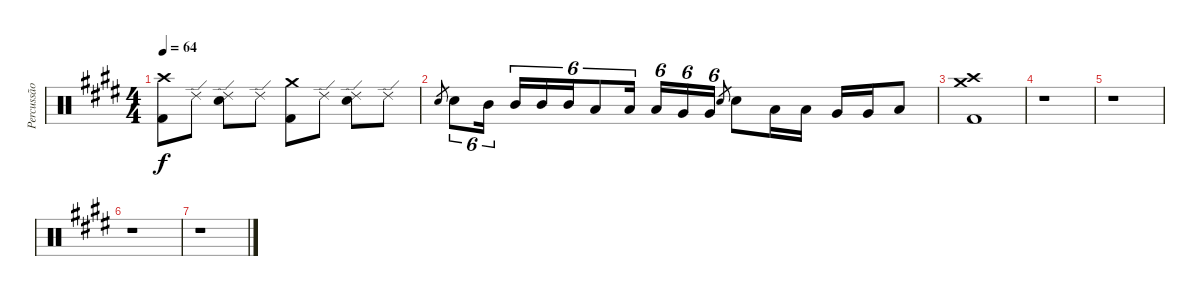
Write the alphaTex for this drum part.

\track ("Percussão" "Percussão") {instrument percussion}
\staff {score}
\articulation defaults
\ts (4 4)
\tempo 64
\clef neutral
\ks e
("Crash high (hit)" "Kick (hit) 2").8{dy f} "Ride (edge) 2".8 ("Ride (edge) 2" "Electric Snare (hit)").8 "Ride (edge) 2".8 ("Crash medium (hit)" "Kick (hit) 2").8 "Ride (edge) 2".8 ("Ride (edge) 2" "Electric Snare (hit)").8 "Ride (edge) 2".8 |
"Electric Snare (hit)".8{gr} "Electric Snare (hit)".8{tu (6 4)} "Mid Tom (hit)".16{tu (6 4)} "Mid Tom (hit)".16{tu (6 4)} "Mid Tom (hit)".16{tu (6 4)} "Mid Tom (hit)".16{tu (6 4)} "Low Tom (hit)".8{tu (6 4)} "Low Tom (hit)".16{tu (6 4)} "Low Tom (hit)".16{tu (6 4)} "Very Low Tom (hit)".16{tu (6 4)} "Very Low Tom (hit)".16{tu (6 4)} "Electric Snare (hit)".8{gr} "Electric Snare (hit)".8 "Low Tom (hit)".16 "Low Tom (hit)".16 "Very Low Tom (hit)".16 "Very Low Tom (hit)".16 "Low Floor Tom (hit)".8 |
("Crash high (hit)" "Crash medium (hit)" "Kick (hit) 2").1 |
r.1 |
r.1 |
r.1 |
r.1
